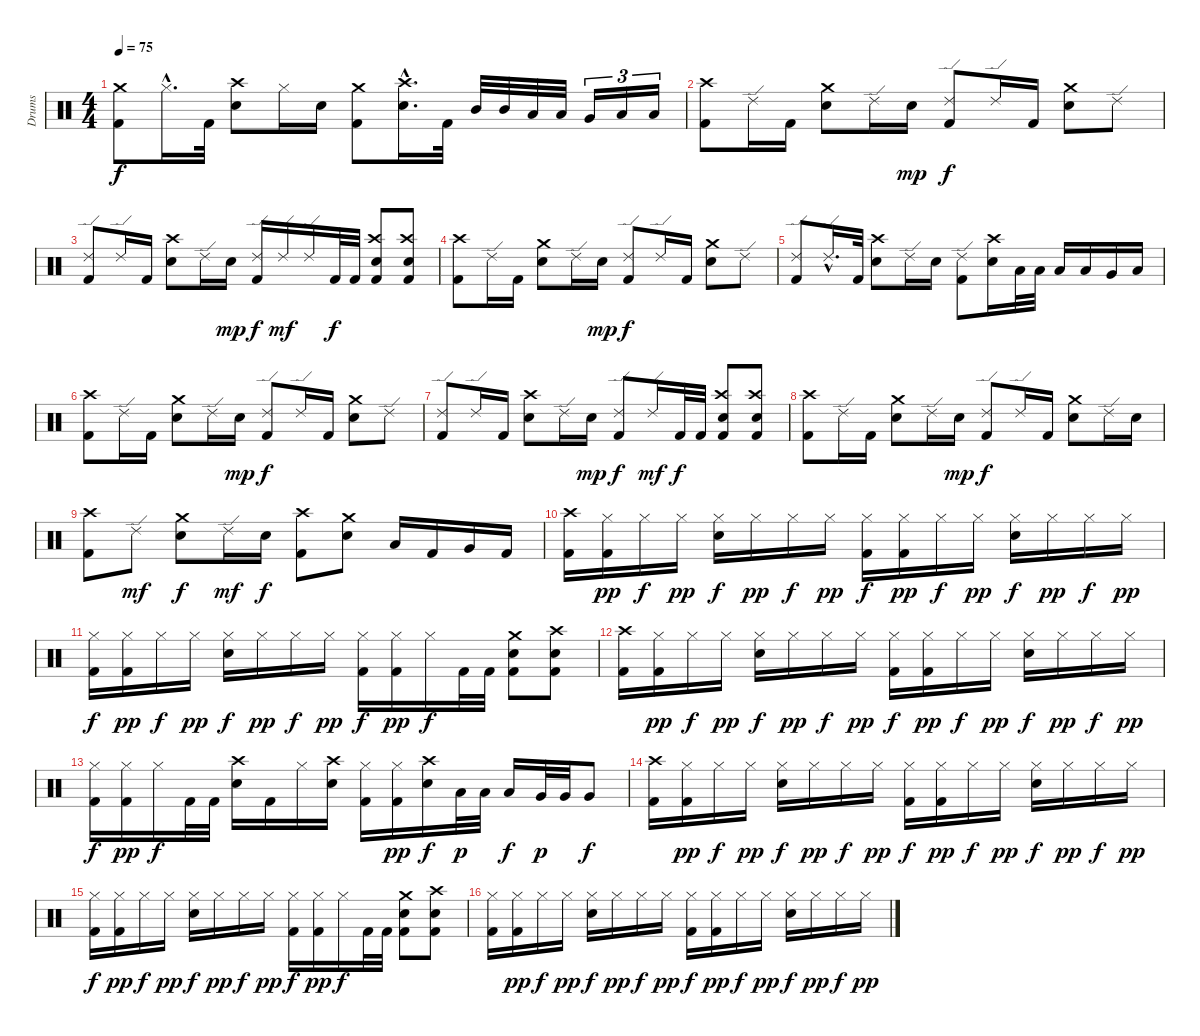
\track ("Drums" "Drums") {instrument percussion}
\staff {score}
\articulation defaults
\ts (4 4)
\tempo 75
\clef neutral
\ks c
("Crash medium (hit)" "Kick (hit) 2").8{dy f} "Hi-Hat (closed)"{hac}.16{d} "Kick (hit) 2".32 ("Crash high (hit)" "Electric Snare (hit)").8 "Hi-Hat (closed)".16 "Electric Snare (hit)".16 ("Crash medium (hit)" "Kick (hit) 2").8 ("Crash high (hit)"{hac} "Electric Snare (hit)"{hac}).16{d} "Kick (hit) 2".32 "Mid Tom (hit)".32 "Mid Tom (hit)".32 "Low Tom (hit)".32 "Low Tom (hit)".32 "Very Low Tom (hit)".16{tu (3 2)} "Low Floor Tom (hit)".16{tu (3 2)} "Low Floor Tom (hit)".16{tu (3 2)} |
("Crash high (hit)" "Kick (hit) 2").8 "Ride (edge) 2".16 "Kick (hit) 2".16 ("Crash medium (hit)" "Electric Snare (hit)").8 "Ride (edge) 2".16 "Electric Snare (hit)"{tr (40 32)}.16{dy mp} ("Ride (edge) 2" "Kick (hit) 2").8{dy f} "Ride (edge) 2".16 "Kick (hit) 2".16 ("Crash medium (hit)" "Electric Snare (hit)").8 "Ride (edge) 2".8 |
("Ride (edge) 2" "Kick (hit) 2").8 "Ride (edge) 2".16 "Kick (hit) 2".16 ("Crash high (hit)" "Electric Snare (hit)").8 "Ride (edge) 2".16 "Electric Snare (hit)"{tr (40 32)}.16{dy mp} ("Ride (edge) 2" "Kick (hit) 2").16{dy f} "Ride (edge) 2".16{dy mf} "Ride (edge) 2".16 "Kick (hit) 2".32{dy f} "Kick (hit) 2".32 ("Crash high (hit)" "Electric Snare (hit)" "Kick (hit) 2").8 ("Crash high (hit)" "Electric Snare (hit)" "Kick (hit) 2").8 |
("Crash high (hit)" "Kick (hit) 2").8 "Ride (edge) 2".16 "Kick (hit) 2".16 ("Crash medium (hit)" "Electric Snare (hit)").8 "Ride (edge) 2".16 "Electric Snare (hit)"{tr (40 32)}.16{dy mp} ("Ride (edge) 2" "Kick (hit) 2").8{dy f} "Ride (edge) 2".16 "Kick (hit) 2".16 ("Crash medium (hit)" "Electric Snare (hit)").8 "Ride (edge) 2".8 |
("Ride (edge) 2" "Kick (hit) 2").8 "Ride (edge) 2"{hac}.16{d} "Kick (hit) 2".32 ("Crash high (hit)" "Electric Snare (hit)").8 "Ride (edge) 2".16 "Electric Snare (hit)".16 ("Ride (edge) 2" "Kick (hit) 2").8 ("Crash high (hit)" "Electric Snare (hit)").16 "Low Tom (hit)".32 "Low Tom (hit)".32 "Low Tom (hit)".16 "Low Tom (hit)".16 "Very Low Tom (hit)".16 "Low Floor Tom (hit)".16 |
("Crash high (hit)" "Kick (hit) 2").8 "Ride (edge) 2".16 "Kick (hit) 2".16 ("Crash medium (hit)" "Electric Snare (hit)").8 "Ride (edge) 2".16 "Electric Snare (hit)"{tr (40 32)}.16{dy mp} ("Ride (edge) 2" "Kick (hit) 2").8{dy f} "Ride (edge) 2".16 "Kick (hit) 2".16 ("Crash medium (hit)" "Electric Snare (hit)").8 "Ride (edge) 2".8 |
("Ride (edge) 2" "Kick (hit) 2").8 "Ride (edge) 2".16 "Kick (hit) 2".16 ("Crash high (hit)" "Electric Snare (hit)").8 "Ride (edge) 2".16 "Electric Snare (hit)"{tr (40 32)}.16{dy mp} ("Ride (edge) 2" "Kick (hit) 2").8{dy f} "Ride (edge) 2".16{dy mf} "Kick (hit) 2".32{dy f} "Kick (hit) 2".32 ("Crash high (hit)" "Electric Snare (hit)" "Kick (hit) 2").8 ("Crash high (hit)" "Electric Snare (hit)" "Kick (hit) 2").8 |
("Crash high (hit)" "Kick (hit) 2").8 "Ride (edge) 2".16 "Kick (hit) 2".16 ("Crash medium (hit)" "Electric Snare (hit)").8 "Ride (edge) 2".16 "Electric Snare (hit)"{tr (40 32)}.16{dy mp} ("Ride (edge) 2" "Kick (hit) 2").8{dy f} "Ride (edge) 2".16 "Kick (hit) 2".16 ("Crash medium (hit)" "Electric Snare (hit)").8 "Ride (edge) 2".16 "Electric Snare (hit)".16 |
("Crash high (hit)" "Kick (hit) 2").8 "Ride (edge) 2".8{dy mf} ("Crash medium (hit)" "Electric Snare (hit)").8{dy f} "Ride (edge) 2".16{dy mf} "Electric Snare (hit)".16{dy f} ("Crash high (hit)" "Kick (hit) 2").8 ("Crash medium (hit)" "Electric Snare (hit)").8 "Low Tom (hit)".16 "Kick (hit) 2".16 "Very Low Tom (hit)".16 "Kick (hit) 2".16 |
("Crash high (hit)" "Kick (hit) 2").16 ("Hi-Hat (closed)" "Kick (hit) 2").16{dy pp} "Hi-Hat (closed)".16{dy f} "Hi-Hat (closed)".16{dy pp} ("Hi-Hat (closed)" "Electric Snare (hit)").16{dy f} "Hi-Hat (closed)".16{dy pp} "Hi-Hat (closed)".16{dy f} "Hi-Hat (closed)".16{dy pp} ("Hi-Hat (closed)" "Kick (hit) 2").16{dy f} ("Hi-Hat (closed)" "Kick (hit) 2").16{dy pp} "Hi-Hat (closed)".16{dy f} "Hi-Hat (closed)".16{dy pp} ("Hi-Hat (closed)" "Electric Snare (hit)").16{dy f} "Hi-Hat (closed)".16{dy pp} "Hi-Hat (closed)".16{dy f} "Hi-Hat (closed)".16{dy pp} |
("Hi-Hat (closed)" "Kick (hit) 2").16{dy f} ("Hi-Hat (closed)" "Kick (hit) 2").16{dy pp} "Hi-Hat (closed)".16{dy f} "Hi-Hat (closed)".16{dy pp} ("Hi-Hat (closed)" "Electric Snare (hit)").16{dy f} "Hi-Hat (closed)".16{dy pp} "Hi-Hat (closed)".16{dy f} "Hi-Hat (closed)".16{dy pp} ("Hi-Hat (closed)" "Kick (hit) 2").16{dy f} ("Hi-Hat (closed)" "Kick (hit) 2").16{dy pp} "Hi-Hat (closed)".16{dy f} "Kick (hit) 2".32 "Kick (hit) 2".32 ("Crash medium (hit)" "Electric Snare (hit)" "Kick (hit) 2").8 ("Crash high (hit)" "Electric Snare (hit)" "Kick (hit) 2").8 |
("Crash high (hit)" "Kick (hit) 2").16 ("Hi-Hat (closed)" "Kick (hit) 2").16{dy pp} "Hi-Hat (closed)".16{dy f} "Hi-Hat (closed)".16{dy pp} ("Hi-Hat (closed)" "Electric Snare (hit)").16{dy f} "Hi-Hat (closed)".16{dy pp} "Hi-Hat (closed)".16{dy f} "Hi-Hat (closed)".16{dy pp} ("Hi-Hat (closed)" "Kick (hit) 2").16{dy f} ("Hi-Hat (closed)" "Kick (hit) 2").16{dy pp} "Hi-Hat (closed)".16{dy f} "Hi-Hat (closed)".16{dy pp} ("Hi-Hat (closed)" "Electric Snare (hit)").16{dy f} "Hi-Hat (closed)".16{dy pp} "Hi-Hat (closed)".16{dy f} "Hi-Hat (closed)".16{dy pp} |
("Hi-Hat (closed)" "Kick (hit) 2").16{dy f} ("Hi-Hat (closed)" "Kick (hit) 2").16{dy pp} "Hi-Hat (closed)".16{dy f} "Kick (hit) 2".32 "Kick (hit) 2".32 ("Crash high (hit)" "Electric Snare (hit)").16 "Kick (hit) 2".16 "Hi-Hat (closed)".16 ("Crash high (hit)" "Electric Snare (hit)").16 ("Hi-Hat (closed)" "Kick (hit) 2").16 ("Hi-Hat (closed)" "Kick (hit) 2").16{dy pp} ("Crash high (hit)" "Electric Snare (hit)").16{dy f} "Low Tom (hit)".32{dy p} "Low Tom (hit)".32 "Low Tom (hit)".16{dy f} "Very Low Tom (hit)".32{dy p} "Very Low Tom (hit)".32 "Very Low Tom (hit)".8{dy f} |
("Crash high (hit)" "Kick (hit) 2").16 ("Hi-Hat (closed)" "Kick (hit) 2").16{dy pp} "Hi-Hat (closed)".16{dy f} "Hi-Hat (closed)".16{dy pp} ("Hi-Hat (closed)" "Electric Snare (hit)").16{dy f} "Hi-Hat (closed)".16{dy pp} "Hi-Hat (closed)".16{dy f} "Hi-Hat (closed)".16{dy pp} ("Hi-Hat (closed)" "Kick (hit) 2").16{dy f} ("Hi-Hat (closed)" "Kick (hit) 2").16{dy pp} "Hi-Hat (closed)".16{dy f} "Hi-Hat (closed)".16{dy pp} ("Hi-Hat (closed)" "Electric Snare (hit)").16{dy f} "Hi-Hat (closed)".16{dy pp} "Hi-Hat (closed)".16{dy f} "Hi-Hat (closed)".16{dy pp} |
("Hi-Hat (closed)" "Kick (hit) 2").16{dy f} ("Hi-Hat (closed)" "Kick (hit) 2").16{dy pp} "Hi-Hat (closed)".16{dy f} "Hi-Hat (closed)".16{dy pp} ("Hi-Hat (closed)" "Electric Snare (hit)").16{dy f} "Hi-Hat (closed)".16{dy pp} "Hi-Hat (closed)".16{dy f} "Hi-Hat (closed)".16{dy pp} ("Hi-Hat (closed)" "Kick (hit) 2").16{dy f} ("Hi-Hat (closed)" "Kick (hit) 2").16{dy pp} "Hi-Hat (closed)".16{dy f} "Kick (hit) 2".32 "Kick (hit) 2".32 ("Crash medium (hit)" "Electric Snare (hit)" "Kick (hit) 2").8 ("Crash high (hit)" "Electric Snare (hit)" "Kick (hit) 2").8 |
("Hi-Hat (closed)" "Kick (hit) 2").16 ("Hi-Hat (closed)" "Kick (hit) 2").16{dy pp} "Hi-Hat (closed)".16{dy f} "Hi-Hat (closed)".16{dy pp} ("Hi-Hat (closed)" "Electric Snare (hit)").16{dy f} "Hi-Hat (closed)".16{dy pp} "Hi-Hat (closed)".16{dy f} "Hi-Hat (closed)".16{dy pp} ("Hi-Hat (closed)" "Kick (hit) 2").16{dy f} ("Hi-Hat (closed)" "Kick (hit) 2").16{dy pp} "Hi-Hat (closed)".16{dy f} "Hi-Hat (closed)".16{dy pp} ("Hi-Hat (closed)" "Electric Snare (hit)").16{dy f} "Hi-Hat (closed)".16{dy pp} "Hi-Hat (closed)".16{dy f} "Hi-Hat (closed)".16{dy pp}
